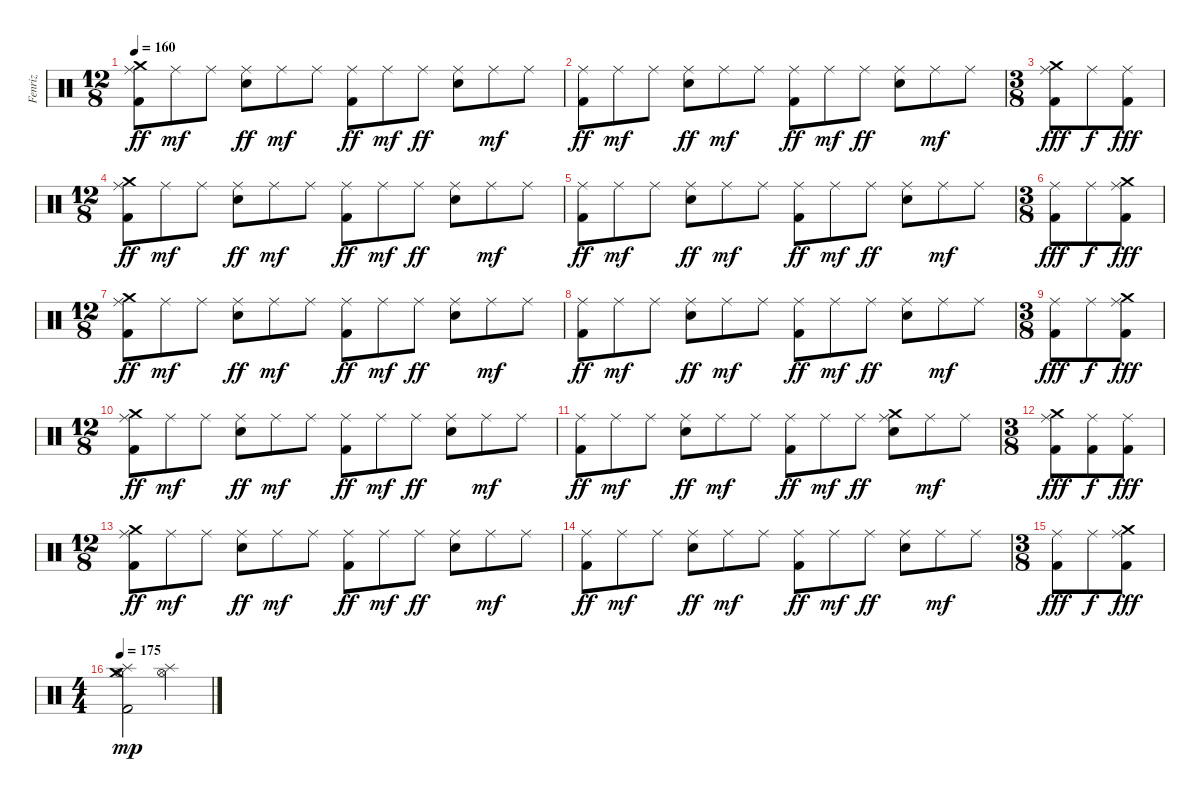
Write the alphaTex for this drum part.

\track ("Fenriz" "Fenriz") {instrument percussion}
\staff {score}
\articulation defaults
\ts (12 8)
\tempo 160
\clef neutral
\ks c
("Kick (hit) 2" "Ride (middle)" "Crash medium (hit)").8{dy ff} "Ride (middle)".8{dy mf} "Ride (middle)".8 ("Electric Snare (hit)" "Ride (middle)").8{dy ff} "Ride (middle)".8{dy mf} "Ride (middle)".8 ("Kick (hit) 2" "Ride (middle)").8{dy ff} "Ride (middle)".8{dy mf} "Ride (middle)".8{dy ff} ("Electric Snare (hit)" "Ride (middle)").8 "Ride (middle)".8{dy mf} "Ride (middle)".8 |
("Kick (hit) 2" "Ride (middle)").8{dy ff} "Ride (middle)".8{dy mf} "Ride (middle)".8 ("Electric Snare (hit)" "Ride (middle)").8{dy ff} "Ride (middle)".8{dy mf} "Ride (middle)".8 ("Kick (hit) 2" "Ride (middle)").8{dy ff} "Ride (middle)".8{dy mf} "Ride (middle)".8{dy ff} ("Electric Snare (hit)" "Ride (middle)").8 "Ride (middle)".8{dy mf} "Ride (middle)".8 |
\ts (3 8)
("Kick (hit) 2" "Crash medium (hit)" "Ride (middle)").8{dy fff} "Ride (middle)".8{dy f} ("Kick (hit) 2" "Ride (middle)").8{dy fff} |
\ts (12 8)
("Kick (hit) 2" "Ride (middle)" "Crash medium (hit)").8{dy ff} "Ride (middle)".8{dy mf} "Ride (middle)".8 ("Electric Snare (hit)" "Ride (middle)").8{dy ff} "Ride (middle)".8{dy mf} "Ride (middle)".8 ("Kick (hit) 2" "Ride (middle)").8{dy ff} "Ride (middle)".8{dy mf} "Ride (middle)".8{dy ff} ("Electric Snare (hit)" "Ride (middle)").8 "Ride (middle)".8{dy mf} "Ride (middle)".8 |
("Kick (hit) 2" "Ride (middle)").8{dy ff} "Ride (middle)".8{dy mf} "Ride (middle)".8 ("Electric Snare (hit)" "Ride (middle)").8{dy ff} "Ride (middle)".8{dy mf} "Ride (middle)".8 ("Kick (hit) 2" "Ride (middle)").8{dy ff} "Ride (middle)".8{dy mf} "Ride (middle)".8{dy ff} ("Electric Snare (hit)" "Ride (middle)").8 "Ride (middle)".8{dy mf} "Ride (middle)".8 |
\ts (3 8)
("Kick (hit) 2" "Ride (middle)").8{dy fff} "Ride (middle)".8{dy f} ("Kick (hit) 2" "Crash medium (hit)" "Ride (middle)").8{dy fff} |
\ts (12 8)
("Kick (hit) 2" "Ride (middle)" "Crash medium (hit)").8{dy ff} "Ride (middle)".8{dy mf} "Ride (middle)".8 ("Electric Snare (hit)" "Ride (middle)").8{dy ff} "Ride (middle)".8{dy mf} "Ride (middle)".8 ("Kick (hit) 2" "Ride (middle)").8{dy ff} "Ride (middle)".8{dy mf} "Ride (middle)".8{dy ff} ("Electric Snare (hit)" "Ride (middle)").8 "Ride (middle)".8{dy mf} "Ride (middle)".8 |
("Kick (hit) 2" "Ride (middle)").8{dy ff} "Ride (middle)".8{dy mf} "Ride (middle)".8 ("Electric Snare (hit)" "Ride (middle)").8{dy ff} "Ride (middle)".8{dy mf} "Ride (middle)".8 ("Kick (hit) 2" "Ride (middle)").8{dy ff} "Ride (middle)".8{dy mf} "Ride (middle)".8{dy ff} ("Electric Snare (hit)" "Ride (middle)").8 "Ride (middle)".8{dy mf} "Ride (middle)".8 |
\ts (3 8)
("Kick (hit) 2" "Ride (middle)").8{dy fff} "Ride (middle)".8{dy f} ("Kick (hit) 2" "Crash medium (hit)" "Ride (middle)").8{dy fff} |
\ts (12 8)
("Kick (hit) 2" "Ride (middle)" "Crash medium (hit)").8{dy ff} "Ride (middle)".8{dy mf} "Ride (middle)".8 ("Electric Snare (hit)" "Ride (middle)").8{dy ff} "Ride (middle)".8{dy mf} "Ride (middle)".8 ("Kick (hit) 2" "Ride (middle)").8{dy ff} "Ride (middle)".8{dy mf} "Ride (middle)".8{dy ff} ("Electric Snare (hit)" "Ride (middle)").8 "Ride (middle)".8{dy mf} "Ride (middle)".8 |
("Kick (hit) 2" "Ride (middle)").8{dy ff} "Ride (middle)".8{dy mf} "Ride (middle)".8 ("Electric Snare (hit)" "Ride (middle)").8{dy ff} "Ride (middle)".8{dy mf} "Ride (middle)".8 ("Kick (hit) 2" "Ride (middle)").8{dy ff} "Ride (middle)".8{dy mf} "Ride (middle)".8{dy ff} ("Crash medium (hit)" "Electric Snare (hit)" "Ride (middle)").8 "Ride (middle)".8{dy mf} "Ride (middle)".8 |
\ts (3 8)
("Kick (hit) 2" "Crash medium (hit)" "Ride (middle)").8{dy fff} ("Kick (hit) 2" "Ride (middle)").8{dy f} ("Kick (hit) 2" "Ride (middle)").8{dy fff} |
\ts (12 8)
("Kick (hit) 2" "Ride (middle)" "Crash medium (hit)").8{dy ff} "Ride (middle)".8{dy mf} "Ride (middle)".8 ("Electric Snare (hit)" "Ride (middle)").8{dy ff} "Ride (middle)".8{dy mf} "Ride (middle)".8 ("Kick (hit) 2" "Ride (middle)").8{dy ff} "Ride (middle)".8{dy mf} "Ride (middle)".8{dy ff} ("Electric Snare (hit)" "Ride (middle)").8 "Ride (middle)".8{dy mf} "Ride (middle)".8 |
("Kick (hit) 2" "Ride (middle)").8{dy ff} "Ride (middle)".8{dy mf} "Ride (middle)".8 ("Electric Snare (hit)" "Ride (middle)").8{dy ff} "Ride (middle)".8{dy mf} "Ride (middle)".8 ("Kick (hit) 2" "Ride (middle)").8{dy ff} "Ride (middle)".8{dy mf} "Ride (middle)".8{dy ff} ("Electric Snare (hit)" "Ride (middle)").8 "Ride (middle)".8{dy mf} "Ride (middle)".8 |
\ts (3 8)
("Kick (hit) 2" "Ride (middle)").8{dy fff} "Ride (middle)".8{dy f} ("Kick (hit) 2" "Crash medium (hit)" "Ride (middle)").8{dy fff} |
\ts (4 4)
\section ("" "")
\tempo 175
("Kick (hit) 2" "Crash medium (hit)" "Splash (hit)" "Hi-Hat (open)").2{dy mp} ("Splash (hit)" "Hi-Hat (open)").2
